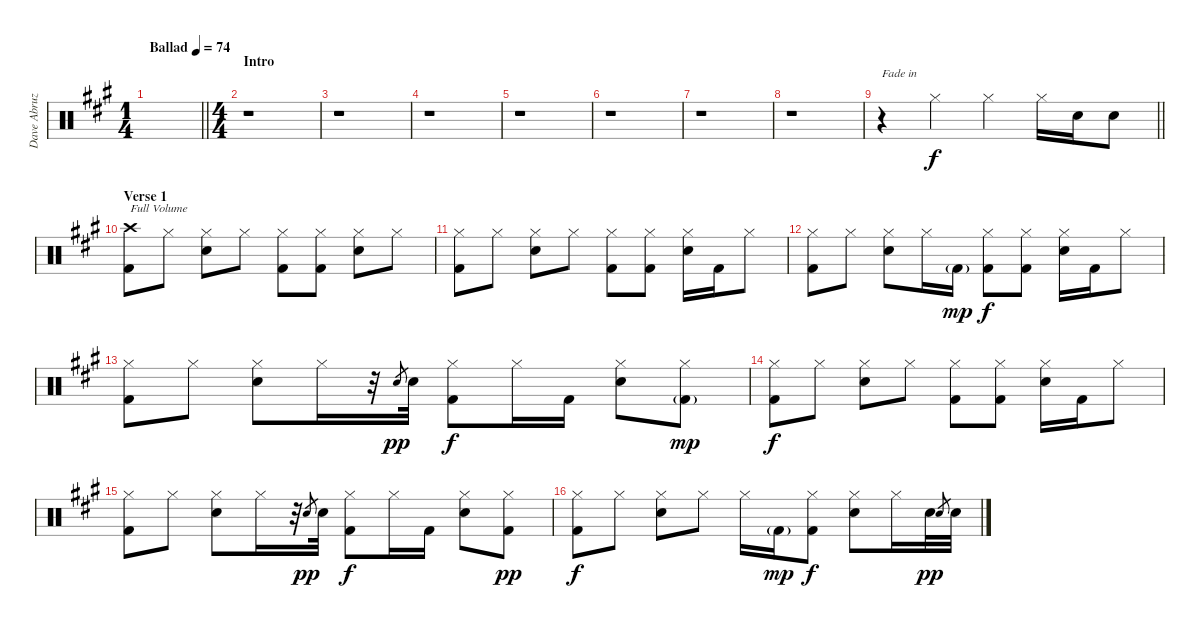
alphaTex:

\track ("Dave Abruzzese" "Dave Abruz") {instrument percussion}
\staff {score}
\articulation defaults
\ts (1 4)
\tempo (74 "Ballad")
\clef neutral
\barLineRight lightlight
\ks a
|
\ts (4 4)
\section ("" "Intro")
r.1{volume 0} |
r.1 |
r.1 |
r.1 |
r.1 |
r.1 |
r.1 |
\barLineRight lightlight
r.4{txt "Fade in" volume 5} "Hi-Hat (closed)".4 "Hi-Hat (closed)".4 "Hi-Hat (closed)".16 "Electric Snare (hit)".16 "Electric Snare (hit)".8 |
\section ("" "Verse 1")
("Crash high (hit)" "Kick (hit) 2").8{txt "Full Volume" volume 10} "Hi-Hat (closed)".8 ("Hi-Hat (closed)" "Electric Snare (hit)").8 "Hi-Hat (closed)".8 ("Hi-Hat (closed)" "Kick (hit) 2").8 ("Hi-Hat (closed)" "Kick (hit) 2").8 ("Hi-Hat (closed)" "Electric Snare (hit)").8 "Hi-Hat (closed)".8 |
("Hi-Hat (closed)" "Kick (hit) 2").8 "Hi-Hat (closed)".8 ("Hi-Hat (closed)" "Electric Snare (hit)").8 "Hi-Hat (closed)".8 ("Hi-Hat (closed)" "Kick (hit) 2").8 ("Hi-Hat (closed)" "Kick (hit) 2").8 ("Hi-Hat (closed)" "Electric Snare (hit)").16 "Kick (hit) 2".16 "Hi-Hat (closed)".8 |
("Hi-Hat (closed)" "Kick (hit) 2").8 "Hi-Hat (closed)".8 ("Hi-Hat (closed)" "Electric Snare (hit)").8 "Hi-Hat (closed)".16 "Kick (hit) 2"{g}.16{dy mp} ("Hi-Hat (closed)" "Kick (hit) 2").8{dy f} ("Hi-Hat (closed)" "Kick (hit) 2").8 ("Hi-Hat (closed)" "Electric Snare (hit)").16 "Kick (hit) 2".16 "Hi-Hat (closed)".8 |
("Hi-Hat (closed)" "Kick (hit) 2").8 "Hi-Hat (closed)".8 ("Hi-Hat (closed)" "Electric Snare (hit)").8 "Hi-Hat (closed)".16 r.32 "Electric Snare (hit)".8{gr dy pp} "Electric Snare (hit)".32 ("Hi-Hat (closed)" "Kick (hit) 2").8{dy f} "Hi-Hat (closed)".16 "Kick (hit) 2".16 ("Hi-Hat (closed)" "Electric Snare (hit)").8 ("Hi-Hat (closed)" "Kick (hit) 2"{g}).8{dy mp} |
("Hi-Hat (closed)" "Kick (hit) 2").8{dy f} "Hi-Hat (closed)".8 ("Hi-Hat (closed)" "Electric Snare (hit)").8 "Hi-Hat (closed)".8 ("Hi-Hat (closed)" "Kick (hit) 2").8 ("Hi-Hat (closed)" "Kick (hit) 2").8 ("Hi-Hat (closed)" "Electric Snare (hit)").16 "Kick (hit) 2".16 "Hi-Hat (closed)".8 |
("Hi-Hat (closed)" "Kick (hit) 2").8 "Hi-Hat (closed)".8 ("Hi-Hat (closed)" "Electric Snare (hit)").8 "Hi-Hat (closed)".16 r.32 "Electric Snare (hit)".8{gr dy pp} "Electric Snare (hit)".32 ("Hi-Hat (closed)" "Kick (hit) 2").8{dy f} "Hi-Hat (closed)".16 "Kick (hit) 2".16 ("Hi-Hat (closed)" "Electric Snare (hit)").8 ("Hi-Hat (closed)" "Kick (hit) 2").8{dy pp} |
("Hi-Hat (closed)" "Kick (hit) 2").8{dy f} "Hi-Hat (closed)".8 ("Hi-Hat (closed)" "Electric Snare (hit)").8 "Hi-Hat (closed)".8 "Hi-Hat (closed)".16 "Kick (hit) 2"{g}.16{dy mp} ("Hi-Hat (closed)" "Kick (hit) 2").8{dy f} ("Hi-Hat (closed)" "Electric Snare (hit)").8 "Hi-Hat (closed)".16 "Electric Snare (hit)".32{dy pp} "Electric Snare (hit)".8{gr} "Electric Snare (hit)".32
